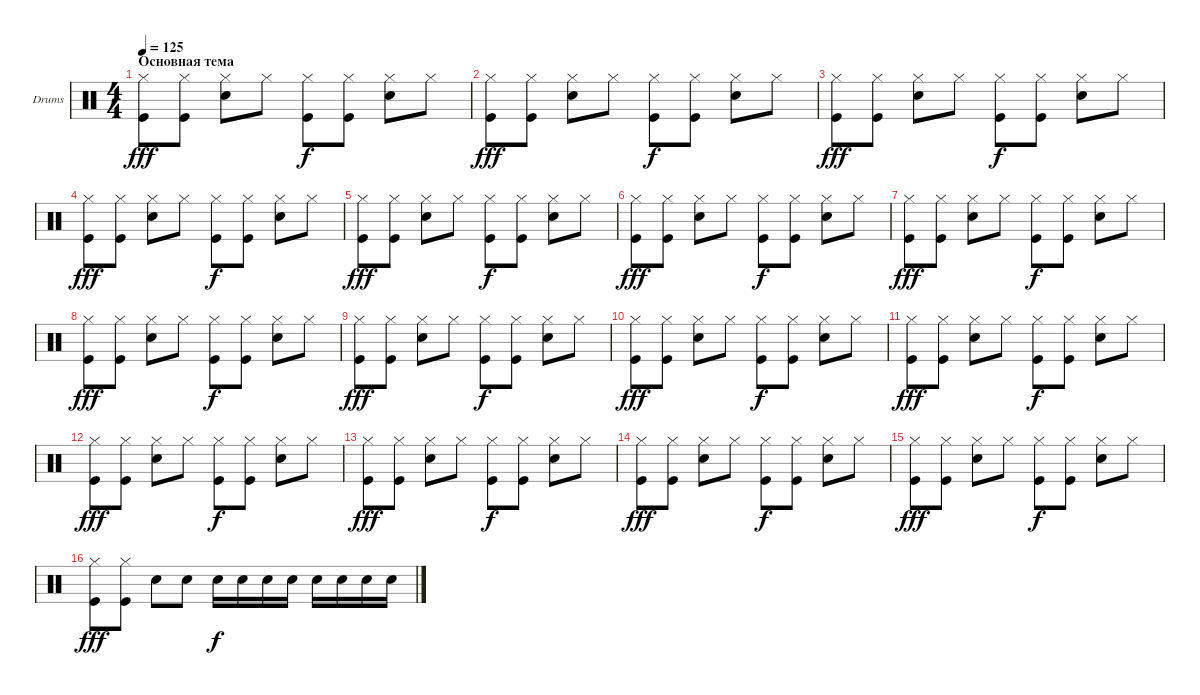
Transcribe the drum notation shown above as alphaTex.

\defaultSystemsLayout 4
\bracketExtendMode groupsimilarinstruments
\firstSystemTrackNameOrientation horizontal
\otherSystemsTrackNameOrientation horizontal
\track ("Drumkit" "Drums") {instrument percussion}
\staff {score}
\articulation defaults
\ts (4 4)
\section ("" "Основная тема")
\tempo 125
\clef neutral
\ks c
("Hi-Hat (closed)" "Kick (hit)").8{dy fff} ("Hi-Hat (closed)" "Kick (hit)").8 ("Hi-Hat (closed)" "Snare (hit) 2").8 "Hi-Hat (closed)".8 ("Hi-Hat (closed)" "Kick (hit)").8{dy f} ("Hi-Hat (closed)" "Kick (hit)").8 ("Hi-Hat (closed)" "Snare (hit) 2").8 "Hi-Hat (closed)".8 |
("Hi-Hat (closed)" "Kick (hit)").8{dy fff} ("Hi-Hat (closed)" "Kick (hit)").8 ("Hi-Hat (closed)" "Snare (hit) 2").8 "Hi-Hat (closed)".8 ("Hi-Hat (closed)" "Kick (hit)").8{dy f} ("Hi-Hat (closed)" "Kick (hit)").8 ("Hi-Hat (closed)" "Snare (hit) 2").8 "Hi-Hat (closed)".8 |
("Hi-Hat (closed)" "Kick (hit)").8{dy fff} ("Hi-Hat (closed)" "Kick (hit)").8 ("Hi-Hat (closed)" "Snare (hit) 2").8 "Hi-Hat (closed)".8 ("Hi-Hat (closed)" "Kick (hit)").8{dy f} ("Hi-Hat (closed)" "Kick (hit)").8 ("Hi-Hat (closed)" "Snare (hit) 2").8 "Hi-Hat (closed)".8 |
("Hi-Hat (closed)" "Kick (hit)").8{dy fff} ("Hi-Hat (closed)" "Kick (hit)").8 ("Hi-Hat (closed)" "Snare (hit) 2").8 "Hi-Hat (closed)".8 ("Hi-Hat (closed)" "Kick (hit)").8{dy f} ("Hi-Hat (closed)" "Kick (hit)").8 ("Hi-Hat (closed)" "Snare (hit) 2").8 "Hi-Hat (closed)".8 |
("Hi-Hat (closed)" "Kick (hit)").8{dy fff} ("Hi-Hat (closed)" "Kick (hit)").8 ("Hi-Hat (closed)" "Snare (hit) 2").8 "Hi-Hat (closed)".8 ("Hi-Hat (closed)" "Kick (hit)").8{dy f} ("Hi-Hat (closed)" "Kick (hit)").8 ("Hi-Hat (closed)" "Snare (hit) 2").8 "Hi-Hat (closed)".8 |
("Hi-Hat (closed)" "Kick (hit)").8{dy fff} ("Hi-Hat (closed)" "Kick (hit)").8 ("Hi-Hat (closed)" "Snare (hit) 2").8 "Hi-Hat (closed)".8 ("Hi-Hat (closed)" "Kick (hit)").8{dy f} ("Hi-Hat (closed)" "Kick (hit)").8 ("Hi-Hat (closed)" "Snare (hit) 2").8 "Hi-Hat (closed)".8 |
("Hi-Hat (closed)" "Kick (hit)").8{dy fff} ("Hi-Hat (closed)" "Kick (hit)").8 ("Hi-Hat (closed)" "Snare (hit) 2").8 "Hi-Hat (closed)".8 ("Hi-Hat (closed)" "Kick (hit)").8{dy f} ("Hi-Hat (closed)" "Kick (hit)").8 ("Hi-Hat (closed)" "Snare (hit) 2").8 "Hi-Hat (closed)".8 |
("Hi-Hat (closed)" "Kick (hit)").8{dy fff} ("Hi-Hat (closed)" "Kick (hit)").8 ("Hi-Hat (closed)" "Snare (hit) 2").8 "Hi-Hat (closed)".8 ("Hi-Hat (closed)" "Kick (hit)").8{dy f} ("Hi-Hat (closed)" "Kick (hit)").8 ("Hi-Hat (closed)" "Snare (hit) 2").8 "Hi-Hat (closed)".8 |
("Hi-Hat (closed)" "Kick (hit)").8{dy fff} ("Hi-Hat (closed)" "Kick (hit)").8 ("Hi-Hat (closed)" "Snare (hit) 2").8 "Hi-Hat (closed)".8 ("Hi-Hat (closed)" "Kick (hit)").8{dy f} ("Hi-Hat (closed)" "Kick (hit)").8 ("Hi-Hat (closed)" "Snare (hit) 2").8 "Hi-Hat (closed)".8 |
("Hi-Hat (closed)" "Kick (hit)").8{dy fff} ("Hi-Hat (closed)" "Kick (hit)").8 ("Hi-Hat (closed)" "Snare (hit) 2").8 "Hi-Hat (closed)".8 ("Hi-Hat (closed)" "Kick (hit)").8{dy f} ("Hi-Hat (closed)" "Kick (hit)").8 ("Hi-Hat (closed)" "Snare (hit) 2").8 "Hi-Hat (closed)".8 |
("Hi-Hat (closed)" "Kick (hit)").8{dy fff} ("Hi-Hat (closed)" "Kick (hit)").8 ("Hi-Hat (closed)" "Snare (hit) 2").8 "Hi-Hat (closed)".8 ("Hi-Hat (closed)" "Kick (hit)").8{dy f} ("Hi-Hat (closed)" "Kick (hit)").8 ("Hi-Hat (closed)" "Snare (hit) 2").8 "Hi-Hat (closed)".8 |
("Hi-Hat (closed)" "Kick (hit)").8{dy fff} ("Hi-Hat (closed)" "Kick (hit)").8 ("Hi-Hat (closed)" "Snare (hit) 2").8 "Hi-Hat (closed)".8 ("Hi-Hat (closed)" "Kick (hit)").8{dy f} ("Hi-Hat (closed)" "Kick (hit)").8 ("Hi-Hat (closed)" "Snare (hit) 2").8 "Hi-Hat (closed)".8 |
("Hi-Hat (closed)" "Kick (hit)").8{dy fff} ("Hi-Hat (closed)" "Kick (hit)").8 ("Hi-Hat (closed)" "Snare (hit) 2").8 "Hi-Hat (closed)".8 ("Hi-Hat (closed)" "Kick (hit)").8{dy f} ("Hi-Hat (closed)" "Kick (hit)").8 ("Hi-Hat (closed)" "Snare (hit) 2").8 "Hi-Hat (closed)".8 |
("Hi-Hat (closed)" "Kick (hit)").8{dy fff} ("Hi-Hat (closed)" "Kick (hit)").8 ("Hi-Hat (closed)" "Snare (hit) 2").8 "Hi-Hat (closed)".8 ("Hi-Hat (closed)" "Kick (hit)").8{dy f} ("Hi-Hat (closed)" "Kick (hit)").8 ("Hi-Hat (closed)" "Snare (hit) 2").8 "Hi-Hat (closed)".8 |
("Hi-Hat (closed)" "Kick (hit)").8{dy fff} ("Hi-Hat (closed)" "Kick (hit)").8 ("Hi-Hat (closed)" "Snare (hit) 2").8 "Hi-Hat (closed)".8 ("Hi-Hat (closed)" "Kick (hit)").8{dy f} ("Hi-Hat (closed)" "Kick (hit)").8 ("Hi-Hat (closed)" "Snare (hit) 2").8 "Hi-Hat (closed)".8 |
("Hi-Hat (closed)" "Kick (hit)").8{dy fff} ("Hi-Hat (closed)" "Kick (hit)").8 "Snare (hit) 2".8 "Snare (hit) 2".8 "Snare (hit) 2".16{dy f} "Snare (hit) 2".16 "Snare (hit) 2".16 "Snare (hit) 2".16 "Snare (hit) 2".16 "Snare (hit) 2".16 "Snare (hit) 2".16 "Snare (hit) 2".16
